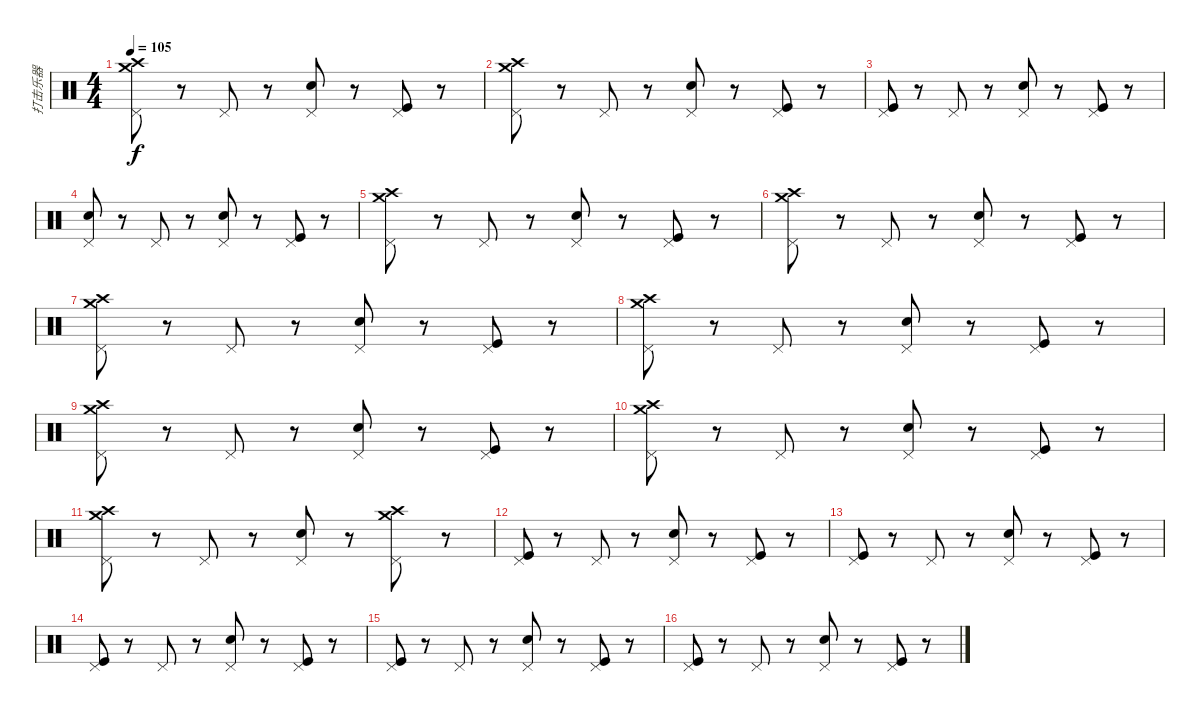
\track ("打击乐器" "打击乐器") {instrument percussion}
\staff {score}
\articulation defaults
\ts (4 4)
\tempo 105
\clef neutral
\ks c
("Crash high (hit)" "Pedal Hi-Hat (hit)" "Crash medium (hit)").8{dy f} r.8 "Pedal Hi-Hat (hit)".8 r.8 ("Snare (hit) 2" "Pedal Hi-Hat (hit)").8 r.8 ("Kick (hit)" "Pedal Hi-Hat (hit)").8 r.8 |
("Crash high (hit)" "Pedal Hi-Hat (hit)" "Crash medium (hit)").8 r.8 "Pedal Hi-Hat (hit)".8 r.8 ("Snare (hit) 2" "Pedal Hi-Hat (hit)").8 r.8 ("Kick (hit)" "Pedal Hi-Hat (hit)").8 r.8 |
("Kick (hit)" "Pedal Hi-Hat (hit)").8 r.8 "Pedal Hi-Hat (hit)".8 r.8 ("Snare (hit) 2" "Pedal Hi-Hat (hit)").8 r.8 ("Kick (hit)" "Pedal Hi-Hat (hit)").8 r.8 |
("Snare (hit) 2" "Pedal Hi-Hat (hit)").8 r.8 "Pedal Hi-Hat (hit)".8 r.8 ("Snare (hit) 2" "Pedal Hi-Hat (hit)").8 r.8 ("Kick (hit)" "Pedal Hi-Hat (hit)").8 r.8 |
("Crash high (hit)" "Pedal Hi-Hat (hit)" "Crash medium (hit)").8 r.8 "Pedal Hi-Hat (hit)".8 r.8 ("Snare (hit) 2" "Pedal Hi-Hat (hit)").8 r.8 ("Kick (hit)" "Pedal Hi-Hat (hit)").8 r.8 |
("Crash high (hit)" "Pedal Hi-Hat (hit)" "Crash medium (hit)").8 r.8 "Pedal Hi-Hat (hit)".8 r.8 ("Snare (hit) 2" "Pedal Hi-Hat (hit)").8 r.8 ("Kick (hit)" "Pedal Hi-Hat (hit)").8 r.8 |
("Crash high (hit)" "Pedal Hi-Hat (hit)" "Crash medium (hit)").8 r.8 "Pedal Hi-Hat (hit)".8 r.8 ("Snare (hit) 2" "Pedal Hi-Hat (hit)").8 r.8 ("Kick (hit)" "Pedal Hi-Hat (hit)").8 r.8 |
("Crash high (hit)" "Pedal Hi-Hat (hit)" "Crash medium (hit)").8 r.8 "Pedal Hi-Hat (hit)".8 r.8 ("Snare (hit) 2" "Pedal Hi-Hat (hit)").8 r.8 ("Kick (hit)" "Pedal Hi-Hat (hit)").8 r.8 |
("Crash high (hit)" "Pedal Hi-Hat (hit)" "Crash medium (hit)").8 r.8 "Pedal Hi-Hat (hit)".8 r.8 ("Snare (hit) 2" "Pedal Hi-Hat (hit)").8 r.8 ("Kick (hit)" "Pedal Hi-Hat (hit)").8 r.8 |
("Crash high (hit)" "Pedal Hi-Hat (hit)" "Crash medium (hit)").8 r.8 "Pedal Hi-Hat (hit)".8 r.8 ("Snare (hit) 2" "Pedal Hi-Hat (hit)").8 r.8 ("Kick (hit)" "Pedal Hi-Hat (hit)").8 r.8 |
("Crash high (hit)" "Pedal Hi-Hat (hit)" "Crash medium (hit)").8 r.8 "Pedal Hi-Hat (hit)".8 r.8 ("Snare (hit) 2" "Pedal Hi-Hat (hit)").8 r.8 ("Crash high (hit)" "Pedal Hi-Hat (hit)" "Crash medium (hit)").8 r.8 |
("Kick (hit)" "Pedal Hi-Hat (hit)").8 r.8 "Pedal Hi-Hat (hit)".8 r.8 ("Snare (hit) 2" "Pedal Hi-Hat (hit)").8 r.8 ("Kick (hit)" "Pedal Hi-Hat (hit)").8 r.8 |
("Kick (hit)" "Pedal Hi-Hat (hit)").8 r.8 "Pedal Hi-Hat (hit)".8 r.8 ("Snare (hit) 2" "Pedal Hi-Hat (hit)").8 r.8 ("Kick (hit)" "Pedal Hi-Hat (hit)").8 r.8 |
("Kick (hit)" "Pedal Hi-Hat (hit)").8 r.8 "Pedal Hi-Hat (hit)".8 r.8 ("Snare (hit) 2" "Pedal Hi-Hat (hit)").8 r.8 ("Kick (hit)" "Pedal Hi-Hat (hit)").8 r.8 |
("Kick (hit)" "Pedal Hi-Hat (hit)").8 r.8 "Pedal Hi-Hat (hit)".8 r.8 ("Snare (hit) 2" "Pedal Hi-Hat (hit)").8 r.8 ("Kick (hit)" "Pedal Hi-Hat (hit)").8 r.8 |
("Kick (hit)" "Pedal Hi-Hat (hit)").8 r.8 "Pedal Hi-Hat (hit)".8 r.8 ("Snare (hit) 2" "Pedal Hi-Hat (hit)").8 r.8 ("Kick (hit)" "Pedal Hi-Hat (hit)").8 r.8
